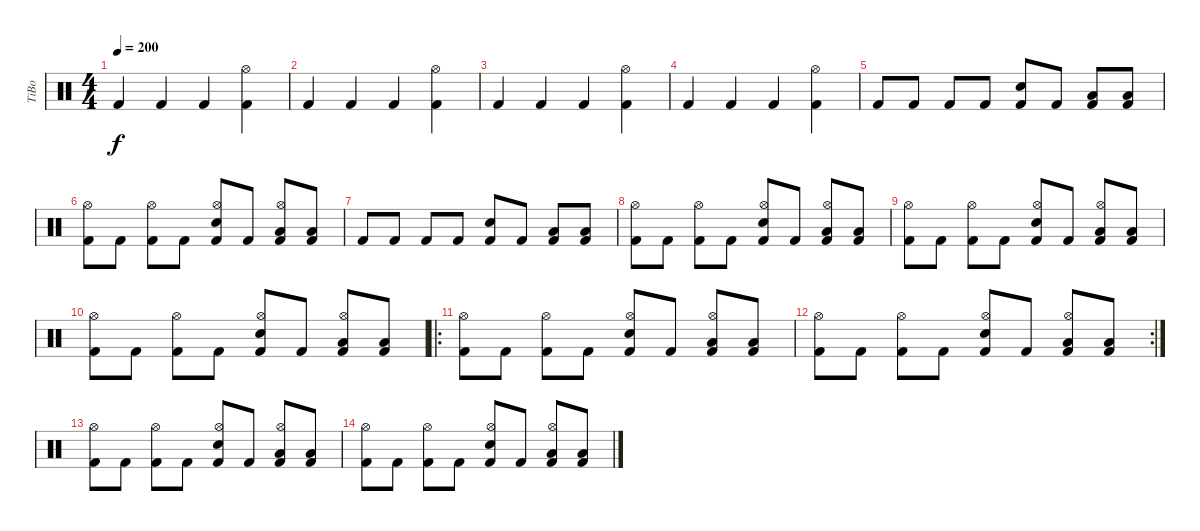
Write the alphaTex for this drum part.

\track ("TiBo" "TiBo") {instrument percussion}
\staff {score}
\articulation defaults
\ts (4 4)
\tempo 200
\clef neutral
\ks c "Kick (hit) 2".4{dy f} "Kick (hit) 2".4 "Kick (hit) 2".4
("Hi-Hat (open)" "Kick (hit) 2").4 |
"Kick (hit) 2".4 "Kick (hit) 2".4 "Kick (hit) 2".4 ("Hi-Hat (open)" "Kick (hit) 2").4 |
"Kick (hit) 2".4 "Kick (hit) 2".4 "Kick (hit) 2".4 ("Hi-Hat (open)" "Kick (hit) 2").4 |
"Kick (hit) 2".4 "Kick (hit) 2".4 "Kick (hit) 2".4 ("Hi-Hat (open)" "Kick (hit) 2").4 |
"Kick (hit) 2".8 "Kick (hit) 2".8 "Kick (hit) 2".8 "Kick (hit) 2".8 ("Snare (hit) 2" "Kick (hit) 2").8 "Kick (hit) 2".8 ("Low Tom (hit)" "Kick (hit) 2").8 ("Low Tom (hit)" "Kick (hit) 2").8 |
("Hi-Hat (open)" "Kick (hit) 2").8 "Kick (hit) 2".8 ("Hi-Hat (open)" "Kick (hit) 2").8 "Kick (hit) 2".8 ("Hi-Hat (open)" "Snare (hit) 2" "Kick (hit) 2").8 "Kick (hit) 2".8 ("Hi-Hat (open)" "Low Tom (hit)" "Kick (hit) 2").8 ("Low Tom (hit)" "Kick (hit) 2").8 |
"Kick (hit) 2".8 "Kick (hit) 2".8 "Kick (hit) 2".8 "Kick (hit) 2".8 ("Snare (hit) 2" "Kick (hit) 2").8 "Kick (hit) 2".8 ("Low Tom (hit)" "Kick (hit) 2").8 ("Low Tom (hit)" "Kick (hit) 2").8 |
("Hi-Hat (open)" "Kick (hit) 2").8 "Kick (hit) 2".8 ("Hi-Hat (open)" "Kick (hit) 2").8 "Kick (hit) 2".8 ("Hi-Hat (open)" "Snare (hit) 2" "Kick (hit) 2").8 "Kick (hit) 2".8 ("Hi-Hat (open)" "Low Tom (hit)" "Kick (hit) 2").8 ("Low Tom (hit)" "Kick (hit) 2").8 |
("Hi-Hat (open)" "Kick (hit) 2").8 "Kick (hit) 2".8 ("Hi-Hat (open)" "Kick (hit) 2").8 "Kick (hit) 2".8 ("Hi-Hat (open)" "Snare (hit) 2" "Kick (hit) 2").8 "Kick (hit) 2".8 ("Hi-Hat (open)" "Low Tom (hit)" "Kick (hit) 2").8 ("Low Tom (hit)" "Kick (hit) 2").8 |
("Hi-Hat (open)" "Kick (hit) 2").8 "Kick (hit) 2".8 ("Hi-Hat (open)" "Kick (hit) 2").8 "Kick (hit) 2".8 ("Hi-Hat (open)" "Snare (hit) 2" "Kick (hit) 2").8 "Kick (hit) 2".8 ("Hi-Hat (open)" "Low Tom (hit)" "Kick (hit) 2").8 ("Low Tom (hit)" "Kick (hit) 2").8 |
\ro
("Hi-Hat (open)" "Kick (hit) 2").8 "Kick (hit) 2".8 ("Hi-Hat (open)" "Kick (hit) 2").8 "Kick (hit) 2".8 ("Hi-Hat (open)" "Snare (hit) 2" "Kick (hit) 2").8 "Kick (hit) 2".8 ("Hi-Hat (open)" "Low Tom (hit)" "Kick (hit) 2").8 ("Low Tom (hit)" "Kick (hit) 2").8 |
\rc 2
("Hi-Hat (open)" "Kick (hit) 2").8 "Kick (hit) 2".8 ("Hi-Hat (open)" "Kick (hit) 2").8 "Kick (hit) 2".8 ("Hi-Hat (open)" "Snare (hit) 2" "Kick (hit) 2").8 "Kick (hit) 2".8 ("Hi-Hat (open)" "Low Tom (hit)" "Kick (hit) 2").8 ("Low Tom (hit)" "Kick (hit) 2").8 |
("Hi-Hat (open)" "Kick (hit) 2").8 "Kick (hit) 2".8 ("Hi-Hat (open)" "Kick (hit) 2").8 "Kick (hit) 2".8 ("Hi-Hat (open)" "Snare (hit) 2" "Kick (hit) 2").8 "Kick (hit) 2".8 ("Hi-Hat (open)" "Low Tom (hit)" "Kick (hit) 2").8 ("Low Tom (hit)" "Kick (hit) 2").8 |
("Hi-Hat (open)" "Kick (hit) 2").8 "Kick (hit) 2".8 ("Hi-Hat (open)" "Kick (hit) 2").8 "Kick (hit) 2".8 ("Hi-Hat (open)" "Snare (hit) 2" "Kick (hit) 2").8 "Kick (hit) 2".8 ("Hi-Hat (open)" "Low Tom (hit)" "Kick (hit) 2").8 ("Low Tom (hit)" "Kick (hit) 2").8
